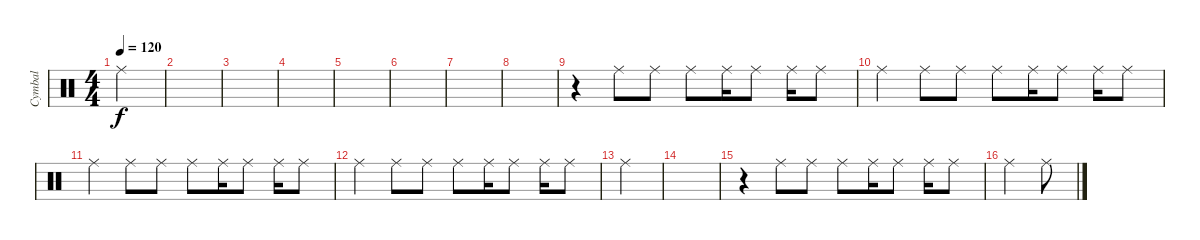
\track ("Cymbal" "Cymbal") {instrument percussion}
\staff {score}
\articulation defaults
\ts (4 4)
\tempo 120
\clef neutral
\ks c "Ride (middle)".4{dy f}
|
|
|
|
|
|
|
|
r.4 "Ride (middle)".8 "Ride (middle)".8 "Ride (middle)".8 "Ride (middle)".16 "Ride (middle)".8 "Ride (middle)".16 "Ride (middle)".8 |
"Ride (middle)".4 "Ride (middle)".8 "Ride (middle)".8 "Ride (middle)".8 "Ride (middle)".16 "Ride (middle)".8 "Ride (middle)".16 "Ride (middle)".8 |
"Ride (middle)".4 "Ride (middle)".8 "Ride (middle)".8 "Ride (middle)".8 "Ride (middle)".16 "Ride (middle)".8 "Ride (middle)".16 "Ride (middle)".8 |
"Ride (middle)".4 "Ride (middle)".8 "Ride (middle)".8 "Ride (middle)".8 "Ride (middle)".16 "Ride (middle)".8 "Ride (middle)".16 "Ride (middle)".8 |
"Ride (middle)".4 |
|
r.4 "Ride (middle)".8 "Ride (middle)".8 "Ride (middle)".8 "Ride (middle)".16 "Ride (middle)".8 "Ride (middle)".16 "Ride (middle)".8 |
"Ride (middle)".4 "Ride (middle)".8
